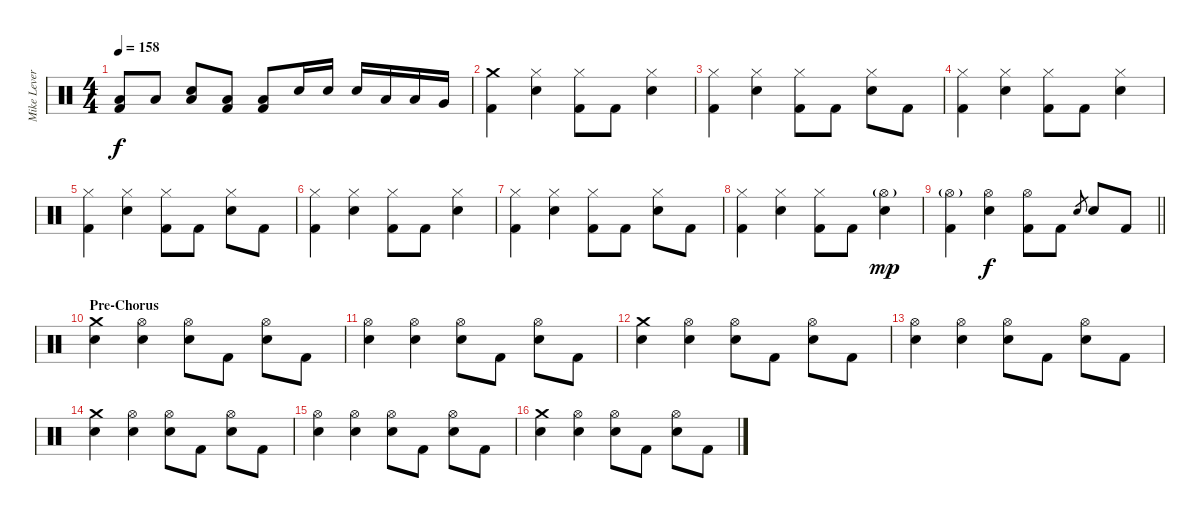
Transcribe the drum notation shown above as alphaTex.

\track ("Mike Leverence - Drums" "Mike Lever") {instrument percussion}
\staff {score}
\articulation defaults
\ts (4 4)
\tempo 158
\clef neutral
\ks c
("Low Floor Tom (hit)" "Kick (hit) 2").8{dy f} "Low Floor Tom (hit)".8 ("Low Floor Tom (hit)" "Electric Snare (hit)").8 ("Low Floor Tom (hit)" "Kick (hit) 2").8 ("Low Floor Tom (hit)" "Kick (hit) 2").8 "Electric Snare (hit)".16 "Electric Snare (hit)".16 "Electric Snare (hit)".16 "Low Tom (hit)".16 "Low Tom (hit)".16 "Very Low Tom (hit)".16 |
("Crash medium (hit)" "Kick (hit) 2").4 ("Hi-Hat (closed)" "Electric Snare (hit)").4 ("Hi-Hat (closed)" "Kick (hit) 2").8 "Kick (hit) 2".8 ("Hi-Hat (closed)" "Electric Snare (hit)").4 |
("Hi-Hat (closed)" "Kick (hit) 2").4 ("Hi-Hat (closed)" "Electric Snare (hit)").4 ("Hi-Hat (closed)" "Kick (hit) 2").8 "Kick (hit) 2".8 ("Hi-Hat (closed)" "Electric Snare (hit)").8 "Kick (hit) 2".8 |
("Hi-Hat (closed)" "Kick (hit) 2").4 ("Hi-Hat (closed)" "Electric Snare (hit)").4 ("Hi-Hat (closed)" "Kick (hit) 2").8 "Kick (hit) 2".8 ("Hi-Hat (closed)" "Electric Snare (hit)").4 |
("Hi-Hat (closed)" "Kick (hit) 2").4 ("Hi-Hat (closed)" "Electric Snare (hit)").4 ("Hi-Hat (closed)" "Kick (hit) 2").8 "Kick (hit) 2".8 ("Hi-Hat (closed)" "Electric Snare (hit)").8 "Kick (hit) 2".8 |
("Hi-Hat (closed)" "Kick (hit) 2").4 ("Hi-Hat (closed)" "Electric Snare (hit)").4 ("Hi-Hat (closed)" "Kick (hit) 2").8 "Kick (hit) 2".8 ("Hi-Hat (closed)" "Electric Snare (hit)").4 |
("Hi-Hat (closed)" "Kick (hit) 2").4 ("Hi-Hat (closed)" "Electric Snare (hit)").4 ("Hi-Hat (closed)" "Kick (hit) 2").8 "Kick (hit) 2".8 ("Hi-Hat (closed)" "Electric Snare (hit)").8 "Kick (hit) 2".8 |
("Hi-Hat (closed)" "Kick (hit) 2").4 ("Hi-Hat (closed)" "Electric Snare (hit)").4 ("Hi-Hat (closed)" "Kick (hit) 2").8 "Kick (hit) 2".8 ("Hi-Hat (open)"{g} "Electric Snare (hit)").4{dy mp} |
\barLineRight lightlight
("Hi-Hat (open)"{g} "Kick (hit) 2").4 ("Hi-Hat (open)" "Electric Snare (hit)").4{dy f} ("Hi-Hat (open)" "Kick (hit) 2").8 "Kick (hit) 2".8 "Electric Snare (hit)".8{gr} "Electric Snare (hit)".8 "Kick (hit) 2".8 |
\section ("" "Pre-Chorus")
("Crash medium (hit)" "Electric Snare (hit)").4 ("Hi-Hat (open)" "Electric Snare (hit)").4 ("Hi-Hat (open)" "Electric Snare (hit)").8 "Kick (hit) 2".8 ("Hi-Hat (open)" "Electric Snare (hit)").8 "Kick (hit) 2".8 |
("Hi-Hat (open)" "Electric Snare (hit)").4 ("Hi-Hat (open)" "Electric Snare (hit)").4 ("Hi-Hat (open)" "Electric Snare (hit)").8 "Kick (hit) 2".8 ("Hi-Hat (open)" "Electric Snare (hit)").8 "Kick (hit) 2".8 |
("Crash medium (hit)" "Electric Snare (hit)").4 ("Hi-Hat (open)" "Electric Snare (hit)").4 ("Hi-Hat (open)" "Electric Snare (hit)").8 "Kick (hit) 2".8 ("Hi-Hat (open)" "Electric Snare (hit)").8 "Kick (hit) 2".8 |
("Hi-Hat (open)" "Electric Snare (hit)").4 ("Hi-Hat (open)" "Electric Snare (hit)").4 ("Hi-Hat (open)" "Electric Snare (hit)").8 "Kick (hit) 2".8 ("Hi-Hat (open)" "Electric Snare (hit)").8 "Kick (hit) 2".8 |
("Crash medium (hit)" "Electric Snare (hit)").4 ("Hi-Hat (open)" "Electric Snare (hit)").4 ("Hi-Hat (open)" "Electric Snare (hit)").8 "Kick (hit) 2".8 ("Hi-Hat (open)" "Electric Snare (hit)").8 "Kick (hit) 2".8 |
("Hi-Hat (open)" "Electric Snare (hit)").4 ("Hi-Hat (open)" "Electric Snare (hit)").4 ("Hi-Hat (open)" "Electric Snare (hit)").8 "Kick (hit) 2".8 ("Hi-Hat (open)" "Electric Snare (hit)").8 "Kick (hit) 2".8 |
("Crash medium (hit)" "Electric Snare (hit)").4 ("Hi-Hat (open)" "Electric Snare (hit)").4 ("Hi-Hat (open)" "Electric Snare (hit)").8 "Kick (hit) 2".8 ("Hi-Hat (open)" "Electric Snare (hit)").8 "Kick (hit) 2".8
